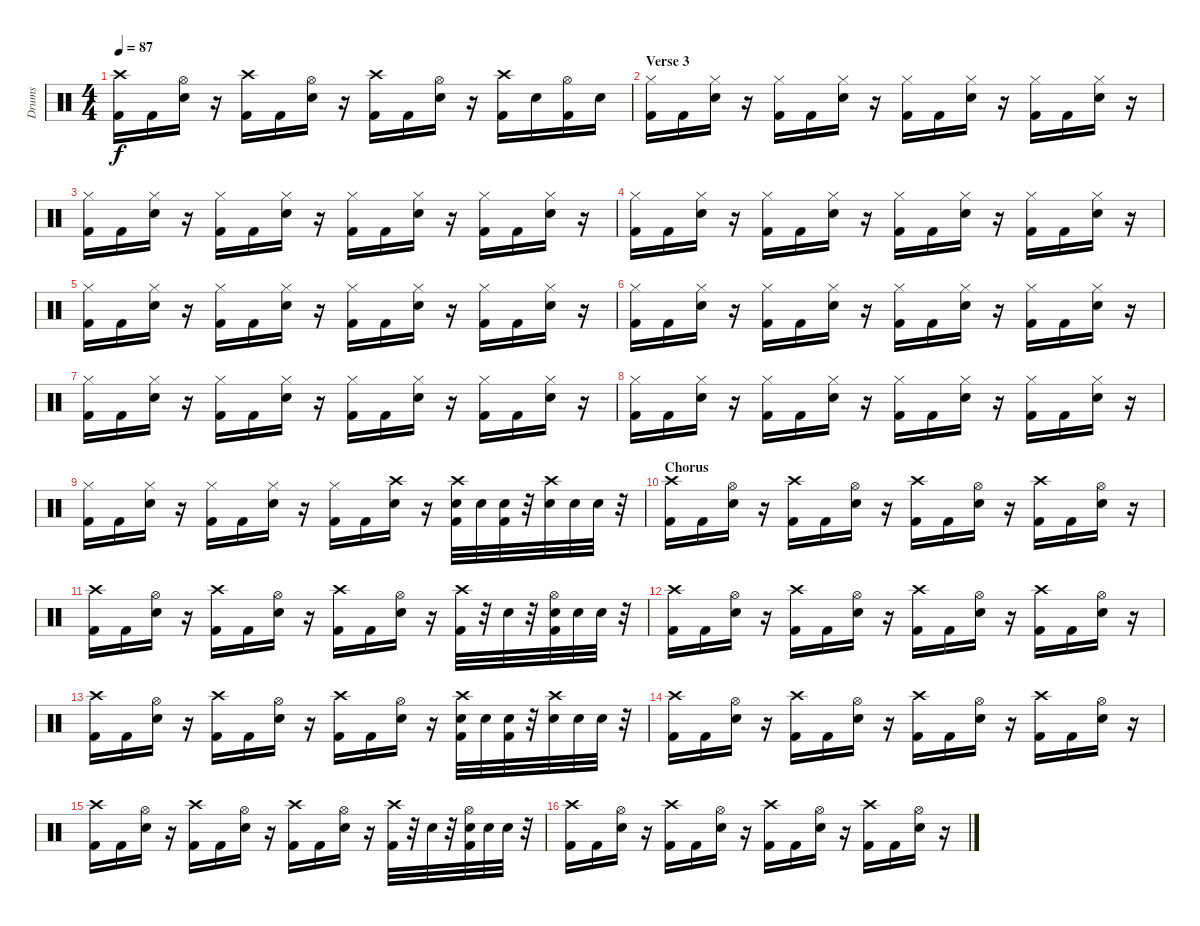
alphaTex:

\track ("Drums" "Drums") {instrument percussion}
\staff {score}
\articulation defaults
\ts (4 4)
\tempo 87
\clef neutral
\ks c
("Crash high (hit)" "Kick (hit) 2").16{dy f} "Kick (hit) 2".16 ("Hi-Hat (open)" "Electric Snare (hit)").16 r.16 ("Crash high (hit)" "Kick (hit) 2").16 "Kick (hit) 2".16 ("Hi-Hat (open)" "Electric Snare (hit)").16 r.16 ("Crash high (hit)" "Kick (hit) 2").16 "Kick (hit) 2".16 ("Hi-Hat (open)" "Electric Snare (hit)").16 r.16 ("Crash high (hit)" "Kick (hit) 2").16 "Electric Snare (hit)".16 ("Hi-Hat (open)" "Kick (hit) 2").16 "Electric Snare (hit)".16 |
\section ("" "Verse 3")
("Hi-Hat (closed)" "Kick (hit) 2").16 "Kick (hit) 2".16 ("Hi-Hat (closed)" "Electric Snare (hit)").16 r.16 ("Hi-Hat (closed)" "Kick (hit) 2").16 "Kick (hit) 2".16 ("Hi-Hat (closed)" "Electric Snare (hit)").16 r.16 ("Hi-Hat (closed)" "Kick (hit) 2").16 "Kick (hit) 2".16 ("Hi-Hat (closed)" "Electric Snare (hit)").16 r.16 ("Hi-Hat (closed)" "Kick (hit) 2").16 "Kick (hit) 2".16 ("Hi-Hat (closed)" "Electric Snare (hit)").16 r.16 |
("Hi-Hat (closed)" "Kick (hit) 2").16 "Kick (hit) 2".16 ("Hi-Hat (closed)" "Electric Snare (hit)").16 r.16 ("Hi-Hat (closed)" "Kick (hit) 2").16 "Kick (hit) 2".16 ("Hi-Hat (closed)" "Electric Snare (hit)").16 r.16 ("Hi-Hat (closed)" "Kick (hit) 2").16 "Kick (hit) 2".16 ("Hi-Hat (closed)" "Electric Snare (hit)").16 r.16 ("Hi-Hat (closed)" "Kick (hit) 2").16 "Kick (hit) 2".16 ("Hi-Hat (closed)" "Electric Snare (hit)").16 r.16 |
("Hi-Hat (closed)" "Kick (hit) 2").16 "Kick (hit) 2".16 ("Hi-Hat (closed)" "Electric Snare (hit)").16 r.16 ("Hi-Hat (closed)" "Kick (hit) 2").16 "Kick (hit) 2".16 ("Hi-Hat (closed)" "Electric Snare (hit)").16 r.16 ("Hi-Hat (closed)" "Kick (hit) 2").16 "Kick (hit) 2".16 ("Hi-Hat (closed)" "Electric Snare (hit)").16 r.16 ("Hi-Hat (closed)" "Kick (hit) 2").16 "Kick (hit) 2".16 ("Hi-Hat (closed)" "Electric Snare (hit)").16 r.16 |
("Hi-Hat (closed)" "Kick (hit) 2").16 "Kick (hit) 2".16 ("Hi-Hat (closed)" "Electric Snare (hit)").16 r.16 ("Hi-Hat (closed)" "Kick (hit) 2").16 "Kick (hit) 2".16 ("Hi-Hat (closed)" "Electric Snare (hit)").16 r.16 ("Hi-Hat (closed)" "Kick (hit) 2").16 "Kick (hit) 2".16 ("Hi-Hat (closed)" "Electric Snare (hit)").16 r.16 ("Hi-Hat (closed)" "Kick (hit) 2").16 "Kick (hit) 2".16 ("Hi-Hat (closed)" "Electric Snare (hit)").16 r.16 |
("Hi-Hat (closed)" "Kick (hit) 2").16 "Kick (hit) 2".16 ("Hi-Hat (closed)" "Electric Snare (hit)").16 r.16 ("Hi-Hat (closed)" "Kick (hit) 2").16 "Kick (hit) 2".16 ("Hi-Hat (closed)" "Electric Snare (hit)").16 r.16 ("Hi-Hat (closed)" "Kick (hit) 2").16 "Kick (hit) 2".16 ("Hi-Hat (closed)" "Electric Snare (hit)").16 r.16 ("Hi-Hat (closed)" "Kick (hit) 2").16 "Kick (hit) 2".16 ("Hi-Hat (closed)" "Electric Snare (hit)").16 r.16 |
("Hi-Hat (closed)" "Kick (hit) 2").16 "Kick (hit) 2".16 ("Hi-Hat (closed)" "Electric Snare (hit)").16 r.16 ("Hi-Hat (closed)" "Kick (hit) 2").16 "Kick (hit) 2".16 ("Hi-Hat (closed)" "Electric Snare (hit)").16 r.16 ("Hi-Hat (closed)" "Kick (hit) 2").16 "Kick (hit) 2".16 ("Hi-Hat (closed)" "Electric Snare (hit)").16 r.16 ("Hi-Hat (closed)" "Kick (hit) 2").16 "Kick (hit) 2".16 ("Hi-Hat (closed)" "Electric Snare (hit)").16 r.16 |
("Hi-Hat (closed)" "Kick (hit) 2").16 "Kick (hit) 2".16 ("Hi-Hat (closed)" "Electric Snare (hit)").16 r.16 ("Hi-Hat (closed)" "Kick (hit) 2").16 "Kick (hit) 2".16 ("Hi-Hat (closed)" "Electric Snare (hit)").16 r.16 ("Hi-Hat (closed)" "Kick (hit) 2").16 "Kick (hit) 2".16 ("Hi-Hat (closed)" "Electric Snare (hit)").16 r.16 ("Hi-Hat (closed)" "Kick (hit) 2").16 "Kick (hit) 2".16 ("Hi-Hat (closed)" "Electric Snare (hit)").16 r.16 |
("Hi-Hat (closed)" "Kick (hit) 2").16 "Kick (hit) 2".16 ("Hi-Hat (closed)" "Electric Snare (hit)").16 r.16 ("Hi-Hat (closed)" "Kick (hit) 2").16 "Kick (hit) 2".16 ("Hi-Hat (closed)" "Electric Snare (hit)").16 r.16 ("Hi-Hat (closed)" "Kick (hit) 2").16 "Kick (hit) 2".16 ("Crash high (hit)" "Electric Snare (hit)").16 r.16 ("Crash high (hit)" "Electric Snare (hit)" "Kick (hit) 2").32 "Electric Snare (hit)".32 ("Electric Snare (hit)" "Kick (hit) 2").32 r.32 ("Crash high (hit)" "Electric Snare (hit)").32 "Electric Snare (hit)".32 "Electric Snare (hit)".32 r.32 |
\section ("" "Chorus")
("Crash high (hit)" "Kick (hit) 2").16 "Kick (hit) 2".16 ("Hi-Hat (open)" "Electric Snare (hit)").16 r.16 ("Crash high (hit)" "Kick (hit) 2").16 "Kick (hit) 2".16 ("Hi-Hat (open)" "Electric Snare (hit)").16 r.16 ("Crash high (hit)" "Kick (hit) 2").16 "Kick (hit) 2".16 ("Hi-Hat (open)" "Electric Snare (hit)").16 r.16 ("Crash high (hit)" "Kick (hit) 2").16 "Kick (hit) 2".16 ("Hi-Hat (open)" "Electric Snare (hit)").16 r.16 |
("Crash high (hit)" "Kick (hit) 2").16 "Kick (hit) 2".16 ("Hi-Hat (open)" "Electric Snare (hit)").16 r.16 ("Crash high (hit)" "Kick (hit) 2").16 "Kick (hit) 2".16 ("Hi-Hat (open)" "Electric Snare (hit)").16 r.16 ("Crash high (hit)" "Kick (hit) 2").16 "Kick (hit) 2".16 ("Hi-Hat (open)" "Electric Snare (hit)").16 r.16 ("Crash high (hit)" "Kick (hit) 2").32 r.32 "Electric Snare (hit)".32 r.32 ("Hi-Hat (open)" "Electric Snare (hit)" "Kick (hit) 2").32 "Electric Snare (hit)".32 "Electric Snare (hit)".32 r.32 |
("Crash high (hit)" "Kick (hit) 2").16 "Kick (hit) 2".16 ("Hi-Hat (open)" "Electric Snare (hit)").16 r.16 ("Crash high (hit)" "Kick (hit) 2").16 "Kick (hit) 2".16 ("Hi-Hat (open)" "Electric Snare (hit)").16 r.16 ("Crash high (hit)" "Kick (hit) 2").16 "Kick (hit) 2".16 ("Hi-Hat (open)" "Electric Snare (hit)").16 r.16 ("Crash high (hit)" "Kick (hit) 2").16 "Kick (hit) 2".16 ("Hi-Hat (open)" "Electric Snare (hit)").16 r.16 |
("Crash high (hit)" "Kick (hit) 2").16 "Kick (hit) 2".16 ("Hi-Hat (open)" "Electric Snare (hit)").16 r.16 ("Crash high (hit)" "Kick (hit) 2").16 "Kick (hit) 2".16 ("Hi-Hat (open)" "Electric Snare (hit)").16 r.16 ("Crash high (hit)" "Kick (hit) 2").16 "Kick (hit) 2".16 ("Hi-Hat (open)" "Electric Snare (hit)").16 r.16 ("Crash high (hit)" "Electric Snare (hit)" "Kick (hit) 2").32 "Electric Snare (hit)".32 ("Electric Snare (hit)" "Kick (hit) 2").32 r.32 ("Crash high (hit)" "Electric Snare (hit)").32 "Electric Snare (hit)".32 "Electric Snare (hit)".32 r.32 |
("Crash high (hit)" "Kick (hit) 2").16 "Kick (hit) 2".16 ("Hi-Hat (open)" "Electric Snare (hit)").16 r.16 ("Crash high (hit)" "Kick (hit) 2").16 "Kick (hit) 2".16 ("Hi-Hat (open)" "Electric Snare (hit)").16 r.16 ("Crash high (hit)" "Kick (hit) 2").16 "Kick (hit) 2".16 ("Hi-Hat (open)" "Electric Snare (hit)").16 r.16 ("Crash high (hit)" "Kick (hit) 2").16 "Kick (hit) 2".16 ("Hi-Hat (open)" "Electric Snare (hit)").16 r.16 |
("Crash high (hit)" "Kick (hit) 2").16 "Kick (hit) 2".16 ("Hi-Hat (open)" "Electric Snare (hit)").16 r.16 ("Crash high (hit)" "Kick (hit) 2").16 "Kick (hit) 2".16 ("Hi-Hat (open)" "Electric Snare (hit)").16 r.16 ("Crash high (hit)" "Kick (hit) 2").16 "Kick (hit) 2".16 ("Hi-Hat (open)" "Electric Snare (hit)").16 r.16 ("Crash high (hit)" "Kick (hit) 2").32 r.32 "Electric Snare (hit)".32 r.32 ("Hi-Hat (open)" "Electric Snare (hit)" "Kick (hit) 2").32 "Electric Snare (hit)".32 "Electric Snare (hit)".32 r.32 |
("Crash high (hit)" "Kick (hit) 2").16 "Kick (hit) 2".16 ("Hi-Hat (open)" "Electric Snare (hit)").16 r.16 ("Crash high (hit)" "Kick (hit) 2").16 "Kick (hit) 2".16 ("Hi-Hat (open)" "Electric Snare (hit)").16 r.16 ("Crash high (hit)" "Kick (hit) 2").16 "Kick (hit) 2".16 ("Hi-Hat (open)" "Electric Snare (hit)").16 r.16 ("Crash high (hit)" "Kick (hit) 2").16 "Kick (hit) 2".16 ("Hi-Hat (open)" "Electric Snare (hit)").16 r.16
